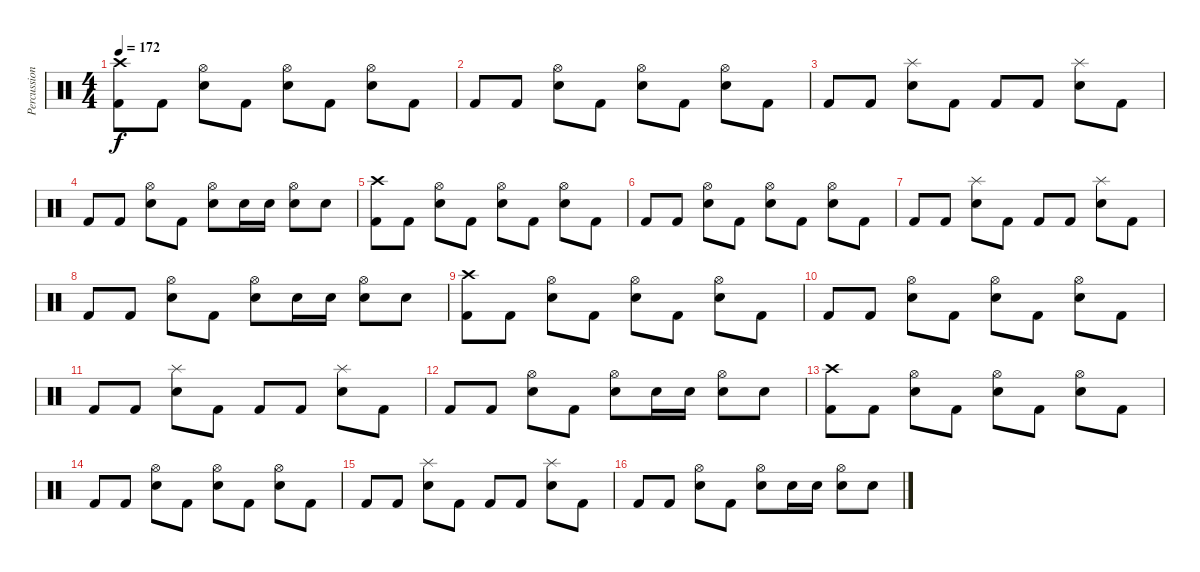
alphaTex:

\track ("Percussion" "Percussion") {instrument percussion}
\staff {score}
\articulation defaults
\ts (4 4)
\tempo 172
\clef neutral
\ks c
("Crash high (hit)" "Kick (hit) 2").8{dy f} "Kick (hit) 2".8 ("Hi-Hat (open)" "Electric Snare (hit)").8 "Kick (hit) 2".8 ("Hi-Hat (open)" "Electric Snare (hit)").8 "Kick (hit) 2".8 ("Hi-Hat (open)" "Electric Snare (hit)").8 "Kick (hit) 2".8 |
"Kick (hit) 2".8 "Kick (hit) 2".8 ("Hi-Hat (open)" "Electric Snare (hit)").8 "Kick (hit) 2".8 ("Hi-Hat (open)" "Electric Snare (hit)").8 "Kick (hit) 2".8 ("Hi-Hat (open)" "Electric Snare (hit)").8 "Kick (hit) 2".8 |
"Kick (hit) 2".8 "Kick (hit) 2".8 ("Splash (hit)" "Electric Snare (hit)").8 "Kick (hit) 2".8 "Kick (hit) 2".8 "Kick (hit) 2".8 ("Splash (hit)" "Electric Snare (hit)").8 "Kick (hit) 2".8 |
"Kick (hit) 2".8 "Kick (hit) 2".8 ("Hi-Hat (open)" "Electric Snare (hit)").8 "Kick (hit) 2".8 ("Hi-Hat (open)" "Electric Snare (hit)").8 "Electric Snare (hit)".16 "Electric Snare (hit)".16 ("Hi-Hat (open)" "Electric Snare (hit)").8 "Electric Snare (hit)".8 |
("Crash high (hit)" "Kick (hit) 2").8 "Kick (hit) 2".8 ("Hi-Hat (open)" "Electric Snare (hit)").8 "Kick (hit) 2".8 ("Hi-Hat (open)" "Electric Snare (hit)").8 "Kick (hit) 2".8 ("Hi-Hat (open)" "Electric Snare (hit)").8 "Kick (hit) 2".8 |
"Kick (hit) 2".8 "Kick (hit) 2".8 ("Hi-Hat (open)" "Electric Snare (hit)").8 "Kick (hit) 2".8 ("Hi-Hat (open)" "Electric Snare (hit)").8 "Kick (hit) 2".8 ("Hi-Hat (open)" "Electric Snare (hit)").8 "Kick (hit) 2".8 |
"Kick (hit) 2".8 "Kick (hit) 2".8 ("Splash (hit)" "Electric Snare (hit)").8 "Kick (hit) 2".8 "Kick (hit) 2".8 "Kick (hit) 2".8 ("Splash (hit)" "Electric Snare (hit)").8 "Kick (hit) 2".8 |
"Kick (hit) 2".8 "Kick (hit) 2".8 ("Hi-Hat (open)" "Electric Snare (hit)").8 "Kick (hit) 2".8 ("Hi-Hat (open)" "Electric Snare (hit)").8 "Electric Snare (hit)".16 "Electric Snare (hit)".16 ("Hi-Hat (open)" "Electric Snare (hit)").8 "Electric Snare (hit)".8 |
("Crash high (hit)" "Kick (hit) 2").8 "Kick (hit) 2".8 ("Hi-Hat (open)" "Electric Snare (hit)").8 "Kick (hit) 2".8 ("Hi-Hat (open)" "Electric Snare (hit)").8 "Kick (hit) 2".8 ("Hi-Hat (open)" "Electric Snare (hit)").8 "Kick (hit) 2".8 |
"Kick (hit) 2".8 "Kick (hit) 2".8 ("Hi-Hat (open)" "Electric Snare (hit)").8 "Kick (hit) 2".8 ("Hi-Hat (open)" "Electric Snare (hit)").8 "Kick (hit) 2".8 ("Hi-Hat (open)" "Electric Snare (hit)").8 "Kick (hit) 2".8 |
"Kick (hit) 2".8 "Kick (hit) 2".8 ("Splash (hit)" "Electric Snare (hit)").8 "Kick (hit) 2".8 "Kick (hit) 2".8 "Kick (hit) 2".8 ("Splash (hit)" "Electric Snare (hit)").8 "Kick (hit) 2".8 |
"Kick (hit) 2".8 "Kick (hit) 2".8 ("Hi-Hat (open)" "Electric Snare (hit)").8 "Kick (hit) 2".8 ("Hi-Hat (open)" "Electric Snare (hit)").8 "Electric Snare (hit)".16 "Electric Snare (hit)".16 ("Hi-Hat (open)" "Electric Snare (hit)").8 "Electric Snare (hit)".8 |
("Crash high (hit)" "Kick (hit) 2").8 "Kick (hit) 2".8 ("Hi-Hat (open)" "Electric Snare (hit)").8 "Kick (hit) 2".8 ("Hi-Hat (open)" "Electric Snare (hit)").8 "Kick (hit) 2".8 ("Hi-Hat (open)" "Electric Snare (hit)").8 "Kick (hit) 2".8 |
"Kick (hit) 2".8 "Kick (hit) 2".8 ("Hi-Hat (open)" "Electric Snare (hit)").8 "Kick (hit) 2".8 ("Hi-Hat (open)" "Electric Snare (hit)").8 "Kick (hit) 2".8 ("Hi-Hat (open)" "Electric Snare (hit)").8 "Kick (hit) 2".8 |
"Kick (hit) 2".8 "Kick (hit) 2".8 ("Splash (hit)" "Electric Snare (hit)").8 "Kick (hit) 2".8 "Kick (hit) 2".8 "Kick (hit) 2".8 ("Splash (hit)" "Electric Snare (hit)").8 "Kick (hit) 2".8 |
"Kick (hit) 2".8 "Kick (hit) 2".8 ("Hi-Hat (open)" "Electric Snare (hit)").8 "Kick (hit) 2".8 ("Hi-Hat (open)" "Electric Snare (hit)").8 "Electric Snare (hit)".16 "Electric Snare (hit)".16 ("Hi-Hat (open)" "Electric Snare (hit)").8 "Electric Snare (hit)".8
